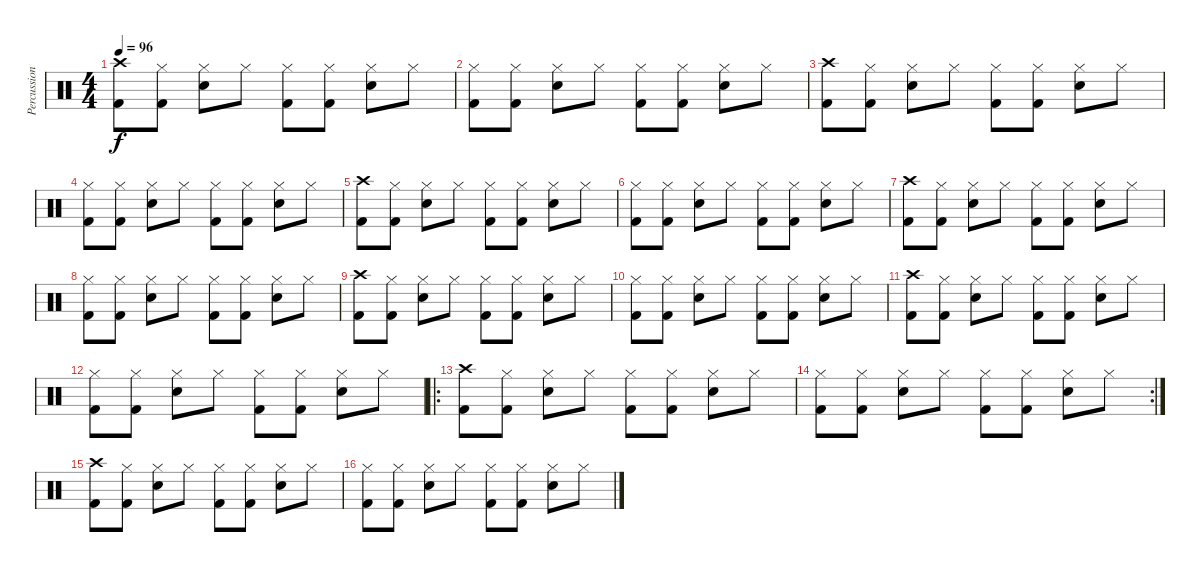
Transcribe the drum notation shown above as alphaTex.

\track ("Percussions" "Percussion") {instrument percussion}
\staff {score}
\articulation defaults
\ts (4 4)
\tempo 96
\clef neutral
\ks c
("Crash high (hit)" "Kick (hit) 2").8{dy f} ("Hi-Hat (closed)" "Kick (hit) 2").8 ("Hi-Hat (closed)" "Snare (hit) 2").8 "Hi-Hat (closed)".8 ("Hi-Hat (closed)" "Kick (hit) 2").8 ("Hi-Hat (closed)" "Kick (hit) 2").8 ("Hi-Hat (closed)" "Snare (hit) 2").8 "Hi-Hat (closed)".8 |
("Hi-Hat (closed)" "Kick (hit) 2").8 ("Hi-Hat (closed)" "Kick (hit) 2").8 ("Hi-Hat (closed)" "Snare (hit) 2").8 "Hi-Hat (closed)".8 ("Hi-Hat (closed)" "Kick (hit) 2").8 ("Hi-Hat (closed)" "Kick (hit) 2").8 ("Hi-Hat (closed)" "Snare (hit) 2").8 "Hi-Hat (closed)".8 |
("Crash high (hit)" "Kick (hit) 2").8 ("Hi-Hat (closed)" "Kick (hit) 2").8 ("Hi-Hat (closed)" "Snare (hit) 2").8 "Hi-Hat (closed)".8 ("Hi-Hat (closed)" "Kick (hit) 2").8 ("Hi-Hat (closed)" "Kick (hit) 2").8 ("Hi-Hat (closed)" "Snare (hit) 2").8 "Hi-Hat (closed)".8 |
("Hi-Hat (closed)" "Kick (hit) 2").8 ("Hi-Hat (closed)" "Kick (hit) 2").8 ("Hi-Hat (closed)" "Snare (hit) 2").8 "Hi-Hat (closed)".8 ("Hi-Hat (closed)" "Kick (hit) 2").8 ("Hi-Hat (closed)" "Kick (hit) 2").8 ("Hi-Hat (closed)" "Snare (hit) 2").8 "Hi-Hat (closed)".8 |
("Crash high (hit)" "Kick (hit) 2").8 ("Hi-Hat (closed)" "Kick (hit) 2").8 ("Hi-Hat (closed)" "Snare (hit) 2").8 "Hi-Hat (closed)".8 ("Hi-Hat (closed)" "Kick (hit) 2").8 ("Hi-Hat (closed)" "Kick (hit) 2").8 ("Hi-Hat (closed)" "Snare (hit) 2").8 "Hi-Hat (closed)".8 |
("Hi-Hat (closed)" "Kick (hit) 2").8 ("Hi-Hat (closed)" "Kick (hit) 2").8 ("Hi-Hat (closed)" "Snare (hit) 2").8 "Hi-Hat (closed)".8 ("Hi-Hat (closed)" "Kick (hit) 2").8 ("Hi-Hat (closed)" "Kick (hit) 2").8 ("Hi-Hat (closed)" "Snare (hit) 2").8 "Hi-Hat (closed)".8 |
("Crash high (hit)" "Kick (hit) 2").8 ("Hi-Hat (closed)" "Kick (hit) 2").8 ("Hi-Hat (closed)" "Snare (hit) 2").8 "Hi-Hat (closed)".8 ("Hi-Hat (closed)" "Kick (hit) 2").8 ("Hi-Hat (closed)" "Kick (hit) 2").8 ("Hi-Hat (closed)" "Snare (hit) 2").8 "Hi-Hat (closed)".8 |
("Hi-Hat (closed)" "Kick (hit) 2").8 ("Hi-Hat (closed)" "Kick (hit) 2").8 ("Hi-Hat (closed)" "Snare (hit) 2").8 "Hi-Hat (closed)".8 ("Hi-Hat (closed)" "Kick (hit) 2").8 ("Hi-Hat (closed)" "Kick (hit) 2").8 ("Hi-Hat (closed)" "Snare (hit) 2").8 "Hi-Hat (closed)".8 |
("Crash high (hit)" "Kick (hit) 2").8 ("Hi-Hat (closed)" "Kick (hit) 2").8 ("Hi-Hat (closed)" "Snare (hit) 2").8 "Hi-Hat (closed)".8 ("Hi-Hat (closed)" "Kick (hit) 2").8 ("Hi-Hat (closed)" "Kick (hit) 2").8 ("Hi-Hat (closed)" "Snare (hit) 2").8 "Hi-Hat (closed)".8 |
("Hi-Hat (closed)" "Kick (hit) 2").8 ("Hi-Hat (closed)" "Kick (hit) 2").8 ("Hi-Hat (closed)" "Snare (hit) 2").8 "Hi-Hat (closed)".8 ("Hi-Hat (closed)" "Kick (hit) 2").8 ("Hi-Hat (closed)" "Kick (hit) 2").8 ("Hi-Hat (closed)" "Snare (hit) 2").8 "Hi-Hat (closed)".8 |
("Crash high (hit)" "Kick (hit) 2").8 ("Hi-Hat (closed)" "Kick (hit) 2").8 ("Hi-Hat (closed)" "Snare (hit) 2").8 "Hi-Hat (closed)".8 ("Hi-Hat (closed)" "Kick (hit) 2").8 ("Hi-Hat (closed)" "Kick (hit) 2").8 ("Hi-Hat (closed)" "Snare (hit) 2").8 "Hi-Hat (closed)".8 |
("Hi-Hat (closed)" "Kick (hit) 2").8 ("Hi-Hat (closed)" "Kick (hit) 2").8 ("Hi-Hat (closed)" "Snare (hit) 2").8 "Hi-Hat (closed)".8 ("Hi-Hat (closed)" "Kick (hit) 2").8 ("Hi-Hat (closed)" "Kick (hit) 2").8 ("Hi-Hat (closed)" "Snare (hit) 2").8 "Hi-Hat (closed)".8 |
\ro
("Crash high (hit)" "Kick (hit) 2").8 ("Hi-Hat (closed)" "Kick (hit) 2").8 ("Hi-Hat (closed)" "Snare (hit) 2").8 "Hi-Hat (closed)".8 ("Hi-Hat (closed)" "Kick (hit) 2").8 ("Hi-Hat (closed)" "Kick (hit) 2").8 ("Hi-Hat (closed)" "Snare (hit) 2").8 "Hi-Hat (closed)".8 |
\rc 2
("Hi-Hat (closed)" "Kick (hit) 2").8 ("Hi-Hat (closed)" "Kick (hit) 2").8 ("Hi-Hat (closed)" "Snare (hit) 2").8 "Hi-Hat (closed)".8 ("Hi-Hat (closed)" "Kick (hit) 2").8 ("Hi-Hat (closed)" "Kick (hit) 2").8 ("Hi-Hat (closed)" "Snare (hit) 2").8 "Hi-Hat (closed)".8 |
("Crash high (hit)" "Kick (hit) 2").8 ("Hi-Hat (closed)" "Kick (hit) 2").8 ("Hi-Hat (closed)" "Snare (hit) 2").8 "Hi-Hat (closed)".8 ("Hi-Hat (closed)" "Kick (hit) 2").8 ("Hi-Hat (closed)" "Kick (hit) 2").8 ("Hi-Hat (closed)" "Snare (hit) 2").8 "Hi-Hat (closed)".8 |
("Hi-Hat (closed)" "Kick (hit) 2").8 ("Hi-Hat (closed)" "Kick (hit) 2").8 ("Hi-Hat (closed)" "Snare (hit) 2").8 "Hi-Hat (closed)".8 ("Hi-Hat (closed)" "Kick (hit) 2").8 ("Hi-Hat (closed)" "Kick (hit) 2").8 ("Hi-Hat (closed)" "Snare (hit) 2").8 "Hi-Hat (closed)".8
